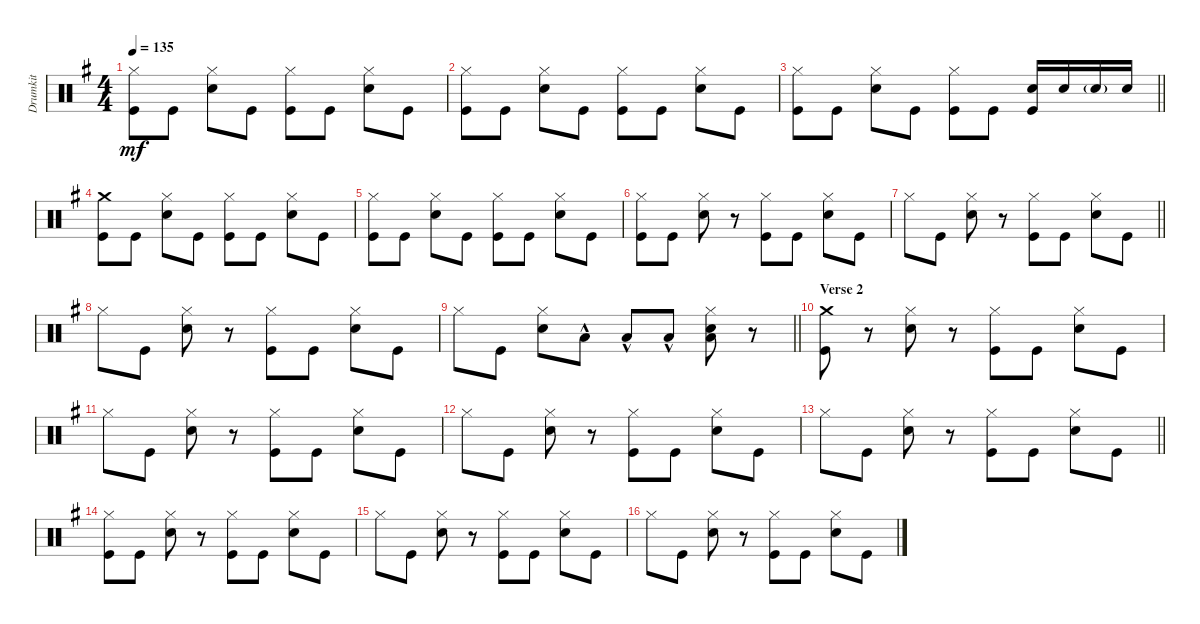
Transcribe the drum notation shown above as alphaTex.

\track ("Drumkit" "Drumkit") {instrument percussion}
\staff {score}
\articulation defaults
\ts (4 4)
\tempo 135
\clef neutral
\ks g
("Kick (hit)" "Hi-Hat (closed)").8{dy mf} "Kick (hit)".8 ("Snare (hit) 2" "Hi-Hat (closed)").8 "Kick (hit)".8 ("Kick (hit)" "Hi-Hat (closed)").8 "Kick (hit)".8 ("Snare (hit) 2" "Hi-Hat (closed)").8 "Kick (hit)".8 |
("Kick (hit)" "Hi-Hat (closed)").8 "Kick (hit)".8 ("Snare (hit) 2" "Hi-Hat (closed)").8 "Kick (hit)".8 ("Kick (hit)" "Hi-Hat (closed)").8 "Kick (hit)".8 ("Snare (hit) 2" "Hi-Hat (closed)").8 "Kick (hit)".8 |
\barLineRight lightlight
("Kick (hit)" "Hi-Hat (closed)").8 "Kick (hit)".8 ("Snare (hit) 2" "Hi-Hat (closed)").8 "Kick (hit)".8 ("Kick (hit)" "Hi-Hat (closed)").8 "Kick (hit)".8 ("Snare (hit) 2" "Kick (hit)").16 "Snare (hit) 2".16 "Snare (hit) 2"{g}.16 "Snare (hit) 2".16 |
("Kick (hit)" "Crash medium (hit)").8 "Kick (hit)".8 ("Snare (hit) 2" "Hi-Hat (closed)").8 "Kick (hit)".8 ("Kick (hit)" "Hi-Hat (closed)").8 "Kick (hit)".8 ("Snare (hit) 2" "Hi-Hat (closed)").8 "Kick (hit)".8 |
("Kick (hit)" "Hi-Hat (closed)").8 "Kick (hit)".8 ("Snare (hit) 2" "Hi-Hat (closed)").8 "Kick (hit)".8 ("Kick (hit)" "Hi-Hat (closed)").8 "Kick (hit)".8 ("Snare (hit) 2" "Hi-Hat (closed)").8 "Kick (hit)".8 |
("Kick (hit)" "Hi-Hat (closed)").8 "Kick (hit)".8 ("Snare (hit) 2" "Hi-Hat (closed)").8 r.8 ("Kick (hit)" "Hi-Hat (closed)").8 "Kick (hit)".8 ("Snare (hit) 2" "Hi-Hat (closed)").8 "Kick (hit)".8 |
\barLineRight lightlight "Hi-Hat (closed)".8 "Kick (hit)".8
("Snare (hit) 2" "Hi-Hat (closed)").8 r.8 ("Kick (hit)" "Hi-Hat (closed)").8 "Kick (hit)".8 ("Snare (hit) 2" "Hi-Hat (closed)").8 "Kick (hit)".8 |
"Hi-Hat (closed)".8 "Kick (hit)".8 ("Snare (hit) 2" "Hi-Hat (closed)").8 r.8 ("Kick (hit)" "Hi-Hat (closed)").8 "Kick (hit)".8 ("Snare (hit) 2" "Hi-Hat (closed)").8 "Kick (hit)".8 |
\barLineRight lightlight "Hi-Hat (closed)".8 "Kick (hit)".8
("Hi-Hat (closed)" "Snare (hit) 2").8 "Low Floor Tom (hit)"{hac}.8 "Low Floor Tom (hit)"{hac}.8 "Low Floor Tom (hit)"{hac}.8 ("Hi-Hat (closed)" "Snare (hit) 2" "Low Floor Tom (hit)").8 r.8 |
\section ("" "Verse 2")
("Kick (hit)" "Crash medium (hit)").8 r.8 ("Hi-Hat (closed)" "Snare (hit) 2").8 r.8 ("Hi-Hat (closed)" "Kick (hit)").8 "Kick (hit)".8 ("Hi-Hat (closed)" "Snare (hit) 2").8 "Kick (hit)".8 |
"Hi-Hat (closed)".8 "Kick (hit)".8 ("Hi-Hat (closed)" "Snare (hit) 2").8 r.8 ("Hi-Hat (closed)" "Kick (hit)").8 "Kick (hit)".8 ("Hi-Hat (closed)" "Snare (hit) 2").8 "Kick (hit)".8 |
"Hi-Hat (closed)".8 "Kick (hit)".8 ("Hi-Hat (closed)" "Snare (hit) 2").8 r.8 ("Hi-Hat (closed)" "Kick (hit)").8 "Kick (hit)".8 ("Hi-Hat (closed)" "Snare (hit) 2").8 "Kick (hit)".8 |
\barLineRight lightlight "Hi-Hat (closed)".8 "Kick (hit)".8
("Hi-Hat (closed)" "Snare (hit) 2").8 r.8 ("Hi-Hat (closed)" "Kick (hit)").8 "Kick (hit)".8 ("Hi-Hat (closed)" "Snare (hit) 2").8 "Kick (hit)".8 |
("Kick (hit)" "Hi-Hat (closed)").8 "Kick (hit)".8 ("Hi-Hat (closed)" "Snare (hit) 2").8 r.8 ("Hi-Hat (closed)" "Kick (hit)").8 "Kick (hit)".8 ("Hi-Hat (closed)" "Snare (hit) 2").8 "Kick (hit)".8 |
"Hi-Hat (closed)".8 "Kick (hit)".8 ("Hi-Hat (closed)" "Snare (hit) 2").8 r.8 ("Hi-Hat (closed)" "Kick (hit)").8 "Kick (hit)".8 ("Hi-Hat (closed)" "Snare (hit) 2").8 "Kick (hit)".8 |
"Hi-Hat (closed)".8 "Kick (hit)".8 ("Hi-Hat (closed)" "Snare (hit) 2").8 r.8 ("Hi-Hat (closed)" "Kick (hit)").8 "Kick (hit)".8 ("Hi-Hat (closed)" "Snare (hit) 2").8 "Kick (hit)".8
